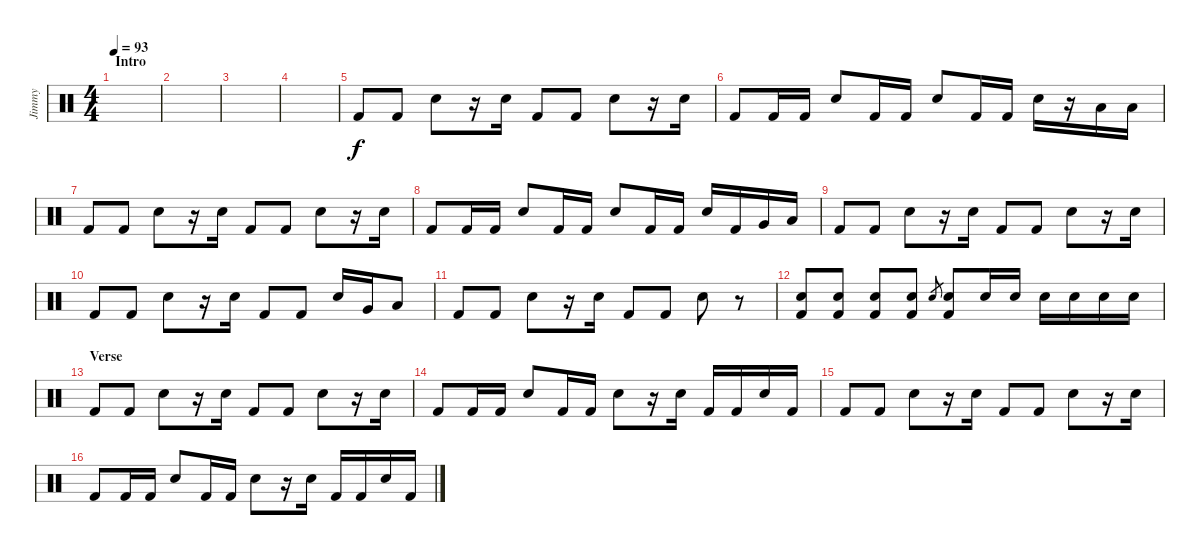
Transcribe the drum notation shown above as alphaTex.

\track ("Jimmy" "Jimmy") {instrument percussion}
\staff {score}
\articulation defaults
\ts (4 4)
\section ("" "Intro")
\tempo 93
\clef neutral
\ks c
|
|
|
|
"Kick (hit) 2".8 "Kick (hit) 2".8 "Snare (hit) 2".8 r.16 "Snare (hit) 2".16 "Kick (hit) 2".8 "Kick (hit) 2".8 "Snare (hit) 2".8 r.16 "Snare (hit) 2".16 |
"Kick (hit) 2".8 "Kick (hit) 2".16 "Kick (hit) 2".16 "Snare (hit) 2".8 "Kick (hit) 2".16 "Kick (hit) 2".16 "Snare (hit) 2".8 "Kick (hit) 2".16 "Kick (hit) 2".16 "Snare (hit) 2".16 r.16 "Low Tom (hit)".16 "Low Floor Tom (hit)".16 |
"Kick (hit) 2".8 "Kick (hit) 2".8 "Snare (hit) 2".8 r.16 "Snare (hit) 2".16 "Kick (hit) 2".8 "Kick (hit) 2".8 "Snare (hit) 2".8 r.16 "Snare (hit) 2".16 |
"Kick (hit) 2".8 "Kick (hit) 2".16 "Kick (hit) 2".16 "Snare (hit) 2".8 "Kick (hit) 2".16 "Kick (hit) 2".16 "Snare (hit) 2".8 "Kick (hit) 2".16 "Kick (hit) 2".16 "Snare (hit) 2".16 "Kick (hit) 2".16 "Very Low Tom (hit)".16 "Low Floor Tom (hit)".16 |
"Kick (hit) 2".8 "Kick (hit) 2".8 "Snare (hit) 2".8 r.16 "Snare (hit) 2".16 "Kick (hit) 2".8 "Kick (hit) 2".8 "Snare (hit) 2".8 r.16 "Snare (hit) 2".16 |
"Kick (hit) 2".8 "Kick (hit) 2".8 "Snare (hit) 2".8 r.16 "Snare (hit) 2".16 "Kick (hit) 2".8 "Kick (hit) 2".8 "Snare (hit) 2".16 "Very Low Tom (hit)".16 "Low Floor Tom (hit)".8 |
"Kick (hit) 2".8 "Kick (hit) 2".8 "Snare (hit) 2".8 r.16 "Snare (hit) 2".16 "Kick (hit) 2".8 "Kick (hit) 2".8 "Snare (hit) 2".8 r.8 |
("Snare (hit) 2" "Kick (hit) 2").8 ("Snare (hit) 2" "Kick (hit) 2").8 ("Snare (hit) 2" "Kick (hit) 2").8 ("Snare (hit) 2" "Kick (hit) 2").8 "Snare (hit) 2".8{gr} ("Snare (hit) 2" "Kick (hit) 2").8 "Snare (hit) 2".16 "Snare (hit) 2".16 "Snare (hit) 2".16 "Snare (hit) 2".16 "Snare (hit) 2".16 "Snare (hit) 2".16 |
\section ("" "Verse")
"Kick (hit) 2".8 "Kick (hit) 2".8 "Snare (hit) 2".8 r.16 "Snare (hit) 2".16 "Kick (hit) 2".8 "Kick (hit) 2".8 "Snare (hit) 2".8 r.16 "Snare (hit) 2".16 |
"Kick (hit) 2".8 "Kick (hit) 2".16 "Kick (hit) 2".16 "Snare (hit) 2".8 "Kick (hit) 2".16 "Kick (hit) 2".16 "Snare (hit) 2".8 r.16 "Snare (hit) 2".16 "Kick (hit) 2".16 "Kick (hit) 2".16 "Snare (hit) 2".16 "Kick (hit) 2".16 |
"Kick (hit) 2".8 "Kick (hit) 2".8 "Snare (hit) 2".8 r.16 "Snare (hit) 2".16 "Kick (hit) 2".8 "Kick (hit) 2".8 "Snare (hit) 2".8 r.16 "Snare (hit) 2".16 |
"Kick (hit) 2".8 "Kick (hit) 2".16 "Kick (hit) 2".16 "Snare (hit) 2".8 "Kick (hit) 2".16 "Kick (hit) 2".16 "Snare (hit) 2".8 r.16 "Snare (hit) 2".16 "Kick (hit) 2".16 "Kick (hit) 2".16 "Snare (hit) 2".16 "Kick (hit) 2".16
